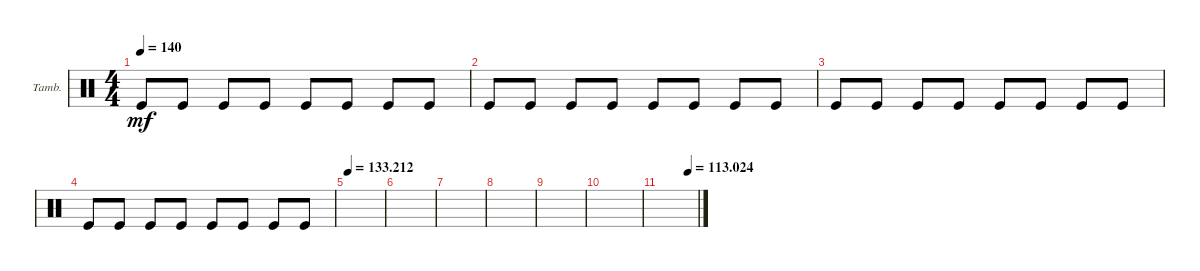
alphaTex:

\defaultSystemsLayout 4
\bracketExtendMode groupsimilarinstruments
\firstSystemTrackNameOrientation horizontal
\otherSystemsTrackNameOrientation horizontal
\track ("Бубен" "Tamb.") {instrument percussion}
\staff {score}
\articulation defaults
\ts (4 4)
\tempo 140
\clef neutral
\scale
0.333333
\ks c "Kick (hit)".8{dy mf} "Kick (hit)".8 "Kick (hit)".8 "Kick (hit)".8 "Kick (hit)".8 "Kick (hit)".8 "Kick (hit)".8 "Kick (hit)".8
|
\scale
0.333333 "Kick (hit)".8 "Kick (hit)".8 "Kick (hit)".8 "Kick (hit)".8 "Kick (hit)".8 "Kick (hit)".8 "Kick (hit)".8 "Kick (hit)".8 |
\scale
0.333333 "Kick (hit)".8 "Kick (hit)".8 "Kick (hit)".8 "Kick (hit)".8 "Kick (hit)".8 "Kick (hit)".8 "Kick (hit)".8 "Kick (hit)".8 |
\scale
0.333333 "Kick (hit)".8 "Kick (hit)".8 "Kick (hit)".8 "Kick (hit)".8 "Kick (hit)".8 "Kick (hit)".8 "Kick (hit)".8 "Kick (hit)".8 |
\tempo
133.212
\scale
0.333333 |
\scale
0.333333 |
\scale
0.333333 |
\scale
0.333333 |
\scale
0.333333 |
|
\tempo (113.024 0.75)
